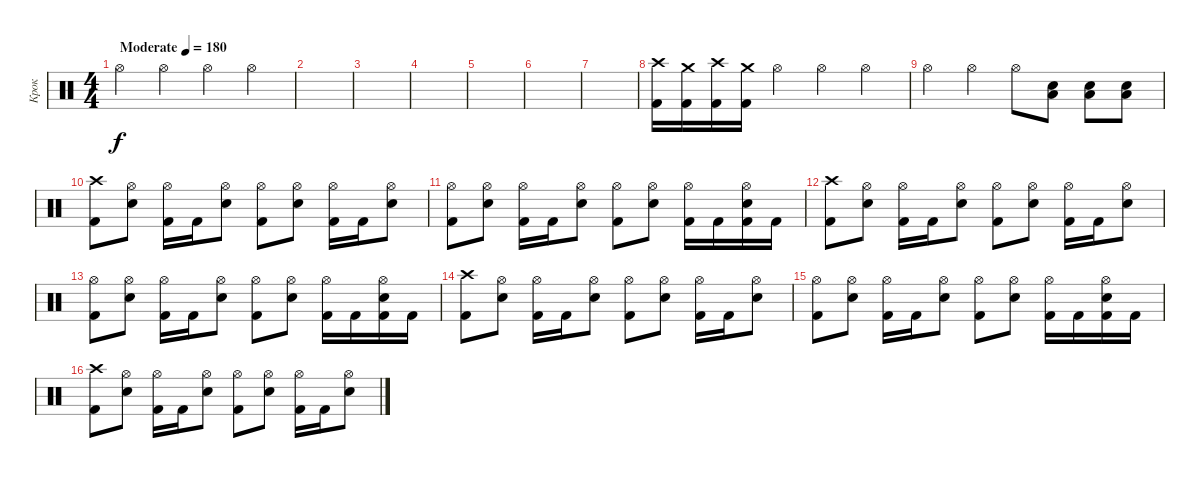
\track ("Крок" "Крок") {instrument percussion}
\staff {score}
\articulation defaults
\ts (4 4)
\tempo (180 "Moderate")
\clef neutral
\ks c "Hi-Hat (open)".4{dy f} "Hi-Hat (open)".4 "Hi-Hat (open)".4 "Hi-Hat (open)".4
|
|
|
|
|
|
|
("Kick (hit) 2" "Crash high (hit)").16 ("Kick (hit) 2" "Crash medium (hit)").16 ("Kick (hit) 2" "Crash high (hit)").16 ("Kick (hit) 2" "Crash medium (hit)").16 "Hi-Hat (open)".4 "Hi-Hat (open)".4 "Hi-Hat (open)".4 |
"Hi-Hat (open)".4 "Hi-Hat (open)".4 "Hi-Hat (open)".8 ("Electric Snare (hit)" "Low Floor Tom (hit)").8 ("Electric Snare (hit)" "Low Floor Tom (hit)").8 ("Electric Snare (hit)" "Low Floor Tom (hit)").8 |
("Kick (hit) 2" "Crash high (hit)").8 ("Electric Snare (hit)" "Hi-Hat (open)").8 ("Kick (hit) 2" "Hi-Hat (open)").16 "Kick (hit) 2".16 ("Electric Snare (hit)" "Hi-Hat (open)").8 ("Kick (hit) 2" "Hi-Hat (open)").8 ("Electric Snare (hit)" "Hi-Hat (open)").8 ("Kick (hit) 2" "Hi-Hat (open)").16 "Kick (hit) 2".16 ("Electric Snare (hit)" "Hi-Hat (open)").8 |
("Kick (hit) 2" "Hi-Hat (open)").8 ("Electric Snare (hit)" "Hi-Hat (open)").8 ("Kick (hit) 2" "Hi-Hat (open)").16 "Kick (hit) 2".16 ("Electric Snare (hit)" "Hi-Hat (open)").8 ("Kick (hit) 2" "Hi-Hat (open)").8 ("Electric Snare (hit)" "Hi-Hat (open)").8 ("Kick (hit) 2" "Hi-Hat (open)").16 "Kick (hit) 2".16 ("Kick (hit) 2" "Electric Snare (hit)" "Hi-Hat (open)").16 "Kick (hit) 2".16 |
("Kick (hit) 2" "Crash high (hit)").8 ("Electric Snare (hit)" "Hi-Hat (open)").8 ("Kick (hit) 2" "Hi-Hat (open)").16 "Kick (hit) 2".16 ("Electric Snare (hit)" "Hi-Hat (open)").8 ("Kick (hit) 2" "Hi-Hat (open)").8 ("Electric Snare (hit)" "Hi-Hat (open)").8 ("Kick (hit) 2" "Hi-Hat (open)").16 "Kick (hit) 2".16 ("Electric Snare (hit)" "Hi-Hat (open)").8 |
("Kick (hit) 2" "Hi-Hat (open)").8 ("Electric Snare (hit)" "Hi-Hat (open)").8 ("Kick (hit) 2" "Hi-Hat (open)").16 "Kick (hit) 2".16 ("Electric Snare (hit)" "Hi-Hat (open)").8 ("Kick (hit) 2" "Hi-Hat (open)").8 ("Electric Snare (hit)" "Hi-Hat (open)").8 ("Kick (hit) 2" "Hi-Hat (open)").16 "Kick (hit) 2".16 ("Kick (hit) 2" "Electric Snare (hit)" "Hi-Hat (open)").16 "Kick (hit) 2".16 |
("Kick (hit) 2" "Crash high (hit)").8 ("Electric Snare (hit)" "Hi-Hat (open)").8 ("Kick (hit) 2" "Hi-Hat (open)").16 "Kick (hit) 2".16 ("Electric Snare (hit)" "Hi-Hat (open)").8 ("Kick (hit) 2" "Hi-Hat (open)").8 ("Electric Snare (hit)" "Hi-Hat (open)").8 ("Kick (hit) 2" "Hi-Hat (open)").16 "Kick (hit) 2".16 ("Electric Snare (hit)" "Hi-Hat (open)").8 |
("Kick (hit) 2" "Hi-Hat (open)").8 ("Electric Snare (hit)" "Hi-Hat (open)").8 ("Kick (hit) 2" "Hi-Hat (open)").16 "Kick (hit) 2".16 ("Electric Snare (hit)" "Hi-Hat (open)").8 ("Kick (hit) 2" "Hi-Hat (open)").8 ("Electric Snare (hit)" "Hi-Hat (open)").8 ("Kick (hit) 2" "Hi-Hat (open)").16 "Kick (hit) 2".16 ("Kick (hit) 2" "Electric Snare (hit)" "Hi-Hat (open)").16 "Kick (hit) 2".16 |
("Kick (hit) 2" "Crash high (hit)").8 ("Electric Snare (hit)" "Hi-Hat (open)").8 ("Kick (hit) 2" "Hi-Hat (open)").16 "Kick (hit) 2".16 ("Electric Snare (hit)" "Hi-Hat (open)").8 ("Kick (hit) 2" "Hi-Hat (open)").8 ("Electric Snare (hit)" "Hi-Hat (open)").8 ("Kick (hit) 2" "Hi-Hat (open)").16 "Kick (hit) 2".16 ("Electric Snare (hit)" "Hi-Hat (open)").8
